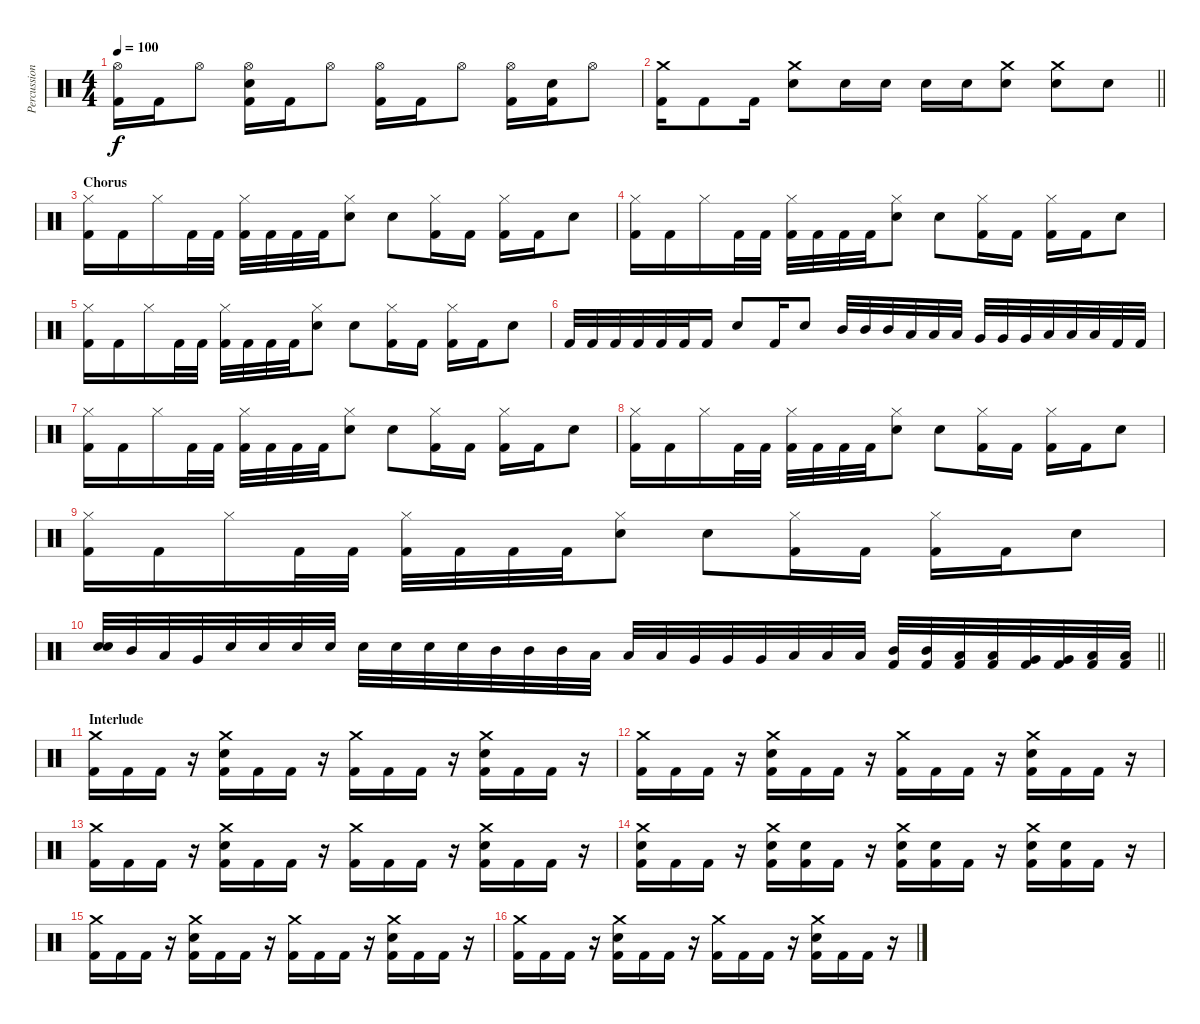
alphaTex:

\track ("Percussion" "Percussion") {instrument percussion}
\staff {score}
\articulation defaults
\ts (4 4)
\tempo 100
\clef neutral
\ks c
("Hi-Hat (open)" "Kick (hit) 2").16{dy f} "Kick (hit) 2".16 "Hi-Hat (open)".8 ("Hi-Hat (open)" "Electric Snare (hit)" "Kick (hit) 2").16 "Kick (hit) 2".16 "Hi-Hat (open)".8 ("Hi-Hat (open)" "Kick (hit) 2").16 "Kick (hit) 2".16 "Hi-Hat (open)".8 ("Hi-Hat (open)" "Kick (hit) 2").16 ("Electric Snare (hit)" "Kick (hit) 2").16 "Hi-Hat (open)".8 |
\barLineRight lightlight
("Crash medium (hit)" "Kick (hit) 2").16 "Kick (hit) 2".8 "Kick (hit) 2".16 ("Crash medium (hit)" "Electric Snare (hit)").8 "Electric Snare (hit)".16 "Electric Snare (hit)".16 "Electric Snare (hit)".16 "Electric Snare (hit)".16 ("Crash medium (hit)" "Electric Snare (hit)").8 ("Crash medium (hit)" "Electric Snare (hit)").8 "Electric Snare (hit)".8 |
\section ("" "Chorus")
("Hi-Hat (closed)" "Kick (hit) 2").16 "Kick (hit) 2".16 "Hi-Hat (closed)".16 "Kick (hit) 2".32 "Kick (hit) 2".32 ("Hi-Hat (closed)" "Kick (hit) 2").32 "Kick (hit) 2".32 "Kick (hit) 2".32 "Kick (hit) 2".32 ("Hi-Hat (closed)" "Electric Snare (hit)").8 "Electric Snare (hit)".8 ("Hi-Hat (closed)" "Kick (hit) 2").16 "Kick (hit) 2".16 ("Hi-Hat (closed)" "Kick (hit) 2").16 "Kick (hit) 2".16 "Electric Snare (hit)".8 |
("Hi-Hat (closed)" "Kick (hit) 2").16 "Kick (hit) 2".16 "Hi-Hat (closed)".16 "Kick (hit) 2".32 "Kick (hit) 2".32 ("Hi-Hat (closed)" "Kick (hit) 2").32 "Kick (hit) 2".32 "Kick (hit) 2".32 "Kick (hit) 2".32 ("Hi-Hat (closed)" "Electric Snare (hit)").8 "Electric Snare (hit)".8 ("Hi-Hat (closed)" "Kick (hit) 2").16 "Kick (hit) 2".16 ("Hi-Hat (closed)" "Kick (hit) 2").16 "Kick (hit) 2".16 "Electric Snare (hit)".8 |
("Hi-Hat (closed)" "Kick (hit) 2").16 "Kick (hit) 2".16 "Hi-Hat (closed)".16 "Kick (hit) 2".32 "Kick (hit) 2".32 ("Hi-Hat (closed)" "Kick (hit) 2").32 "Kick (hit) 2".32 "Kick (hit) 2".32 "Kick (hit) 2".32 ("Hi-Hat (closed)" "Electric Snare (hit)").8 "Electric Snare (hit)".8 ("Hi-Hat (closed)" "Kick (hit) 2").16 "Kick (hit) 2".16 ("Hi-Hat (closed)" "Kick (hit) 2").16 "Kick (hit) 2".16 "Electric Snare (hit)".8 |
"Kick (hit) 2".32 "Kick (hit) 2".32 "Kick (hit) 2".32 "Kick (hit) 2".32 "Kick (hit) 2".32 "Kick (hit) 2".32 "Kick (hit) 2".16 "Electric Snare (hit)".8 "Kick (hit) 2".16 "Electric Snare (hit)".8 "Mid Tom (hit)".32 "Mid Tom (hit)".32 "Mid Tom (hit)".32 "Low Tom (hit)".32 "Low Tom (hit)".32 "Low Tom (hit)".32 "Very Low Tom (hit)".32 "Very Low Tom (hit)".32 "Very Low Tom (hit)".32 "Low Floor Tom (hit)".32 "Low Floor Tom (hit)".32 "Low Floor Tom (hit)".32 "Kick (hit) 2".32 "Kick (hit) 2".32 |
("Hi-Hat (closed)" "Kick (hit) 2").16 "Kick (hit) 2".16 "Hi-Hat (closed)".16 "Kick (hit) 2".32 "Kick (hit) 2".32 ("Hi-Hat (closed)" "Kick (hit) 2").32 "Kick (hit) 2".32 "Kick (hit) 2".32 "Kick (hit) 2".32 ("Hi-Hat (closed)" "Electric Snare (hit)").8 "Electric Snare (hit)".8 ("Hi-Hat (closed)" "Kick (hit) 2").16 "Kick (hit) 2".16 ("Hi-Hat (closed)" "Kick (hit) 2").16 "Kick (hit) 2".16 "Electric Snare (hit)".8 |
("Hi-Hat (closed)" "Kick (hit) 2").16 "Kick (hit) 2".16 "Hi-Hat (closed)".16 "Kick (hit) 2".32 "Kick (hit) 2".32 ("Hi-Hat (closed)" "Kick (hit) 2").32 "Kick (hit) 2".32 "Kick (hit) 2".32 "Kick (hit) 2".32 ("Hi-Hat (closed)" "Electric Snare (hit)").8 "Electric Snare (hit)".8 ("Hi-Hat (closed)" "Kick (hit) 2").16 "Kick (hit) 2".16 ("Hi-Hat (closed)" "Kick (hit) 2").16 "Kick (hit) 2".16 "Electric Snare (hit)".8 |
("Hi-Hat (closed)" "Kick (hit) 2").16 "Kick (hit) 2".16 "Hi-Hat (closed)".16 "Kick (hit) 2".32 "Kick (hit) 2".32 ("Hi-Hat (closed)" "Kick (hit) 2").32 "Kick (hit) 2".32 "Kick (hit) 2".32 "Kick (hit) 2".32 ("Hi-Hat (closed)" "Electric Snare (hit)").8 "Electric Snare (hit)".8 ("Hi-Hat (closed)" "Kick (hit) 2").16 "Kick (hit) 2".16 ("Hi-Hat (closed)" "Kick (hit) 2").16 "Kick (hit) 2".16 "Electric Snare (hit)".8 |
\barLineRight lightlight
("Electric Snare (hit)" "Electric Snare (hit)").32{bu 60} "Mid Tom (hit)".32 "Low Tom (hit)".32 "Very Low Tom (hit)".32 "Electric Snare (hit)".32 "Electric Snare (hit)".32 "Electric Snare (hit)".32 "Electric Snare (hit)".32 "Electric Snare (hit)".32 "Electric Snare (hit)".32 "Electric Snare (hit)".32 "Electric Snare (hit)".32 "Mid Tom (hit)".32 "Mid Tom (hit)".32 "Mid Tom (hit)".32 "Low Tom (hit)".32 "Low Tom (hit)".32 "Low Tom (hit)".32 "Very Low Tom (hit)".32 "Very Low Tom (hit)".32 "Very Low Tom (hit)".32 "Low Floor Tom (hit)".32 "Low Floor Tom (hit)".32 "Low Floor Tom (hit)".32 ("Mid Tom (hit)" "Kick (hit) 2").32 ("Mid Tom (hit)" "Kick (hit) 2").32 ("Low Tom (hit)" "Kick (hit) 2").32 ("Low Tom (hit)" "Kick (hit) 2").32 ("Very Low Tom (hit)" "Kick (hit) 2").32 ("Very Low Tom (hit)" "Kick (hit) 2").32 ("Low Floor Tom (hit)" "Kick (hit) 2").32 ("Low Floor Tom (hit)" "Kick (hit) 2").32 |
\section ("" "Interlude")
("Crash medium (hit)" "Kick (hit) 2").16 "Kick (hit) 2".16 "Kick (hit) 2".16 r.16 ("Crash medium (hit)" "Electric Snare (hit)" "Kick (hit) 2").16 "Kick (hit) 2".16 "Kick (hit) 2".16 r.16 ("Crash medium (hit)" "Kick (hit) 2").16 "Kick (hit) 2".16 "Kick (hit) 2".16 r.16 ("Crash medium (hit)" "Electric Snare (hit)" "Kick (hit) 2").16 "Kick (hit) 2".16 "Kick (hit) 2".16 r.16 |
("Crash medium (hit)" "Kick (hit) 2").16 "Kick (hit) 2".16 "Kick (hit) 2".16 r.16 ("Crash medium (hit)" "Electric Snare (hit)" "Kick (hit) 2").16 "Kick (hit) 2".16 "Kick (hit) 2".16 r.16 ("Crash medium (hit)" "Kick (hit) 2").16 "Kick (hit) 2".16 "Kick (hit) 2".16 r.16 ("Crash medium (hit)" "Electric Snare (hit)" "Kick (hit) 2").16 "Kick (hit) 2".16 "Kick (hit) 2".16 r.16 |
("Crash medium (hit)" "Kick (hit) 2").16 "Kick (hit) 2".16 "Kick (hit) 2".16 r.16 ("Crash medium (hit)" "Electric Snare (hit)" "Kick (hit) 2").16 "Kick (hit) 2".16 "Kick (hit) 2".16 r.16 ("Crash medium (hit)" "Kick (hit) 2").16 "Kick (hit) 2".16 "Kick (hit) 2".16 r.16 ("Crash medium (hit)" "Electric Snare (hit)" "Kick (hit) 2").16 "Kick (hit) 2".16 "Kick (hit) 2".16 r.16 |
("Crash medium (hit)" "Electric Snare (hit)" "Kick (hit) 2").16 "Kick (hit) 2".16 "Kick (hit) 2".16 r.16 ("Crash medium (hit)" "Electric Snare (hit)" "Kick (hit) 2").16 ("Electric Snare (hit)" "Kick (hit) 2").16 "Kick (hit) 2".16 r.16 ("Crash medium (hit)" "Electric Snare (hit)" "Kick (hit) 2").16 ("Electric Snare (hit)" "Kick (hit) 2").16 "Kick (hit) 2".16 r.16 ("Crash medium (hit)" "Electric Snare (hit)" "Kick (hit) 2").16 ("Electric Snare (hit)" "Kick (hit) 2").16 "Kick (hit) 2".16 r.16 |
("Crash medium (hit)" "Kick (hit) 2").16 "Kick (hit) 2".16 "Kick (hit) 2".16 r.16 ("Crash medium (hit)" "Electric Snare (hit)" "Kick (hit) 2").16 "Kick (hit) 2".16 "Kick (hit) 2".16 r.16 ("Crash medium (hit)" "Kick (hit) 2").16 "Kick (hit) 2".16 "Kick (hit) 2".16 r.16 ("Crash medium (hit)" "Electric Snare (hit)" "Kick (hit) 2").16 "Kick (hit) 2".16 "Kick (hit) 2".16 r.16 |
("Crash medium (hit)" "Kick (hit) 2").16 "Kick (hit) 2".16 "Kick (hit) 2".16 r.16 ("Crash medium (hit)" "Electric Snare (hit)" "Kick (hit) 2").16 "Kick (hit) 2".16 "Kick (hit) 2".16 r.16 ("Crash medium (hit)" "Kick (hit) 2").16 "Kick (hit) 2".16 "Kick (hit) 2".16 r.16 ("Crash medium (hit)" "Electric Snare (hit)" "Kick (hit) 2").16 "Kick (hit) 2".16 "Kick (hit) 2".16 r.16
